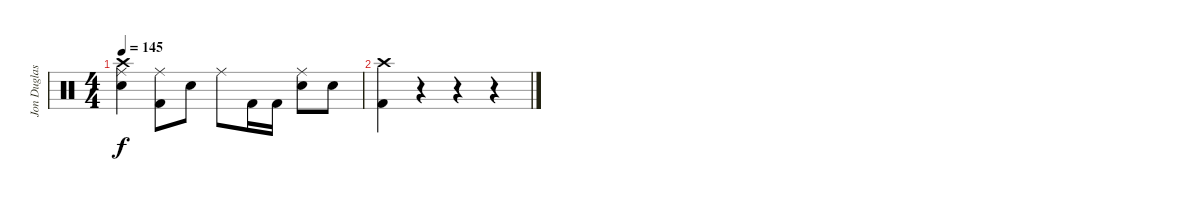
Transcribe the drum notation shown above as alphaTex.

\track ("Jon Duglas (Drums)" "Jon Duglas") {instrument percussion}
\staff {score}
\articulation defaults
\ts (4 4)
\tempo 145
\clef neutral
\ks c
("Ride (middle)" "Electric Snare (hit)" "Crash high (hit)").4{dy f} ("Ride (middle)" "Kick (hit) 2").8 "Electric Snare (hit)".8 "Ride (middle)".8 "Kick (hit) 2".16 "Kick (hit) 2".16 ("Ride (middle)" "Electric Snare (hit)").8 "Electric Snare (hit)".8 |
("Kick (hit) 2" "Crash high (hit)").4 r.4 r.4 r.4
